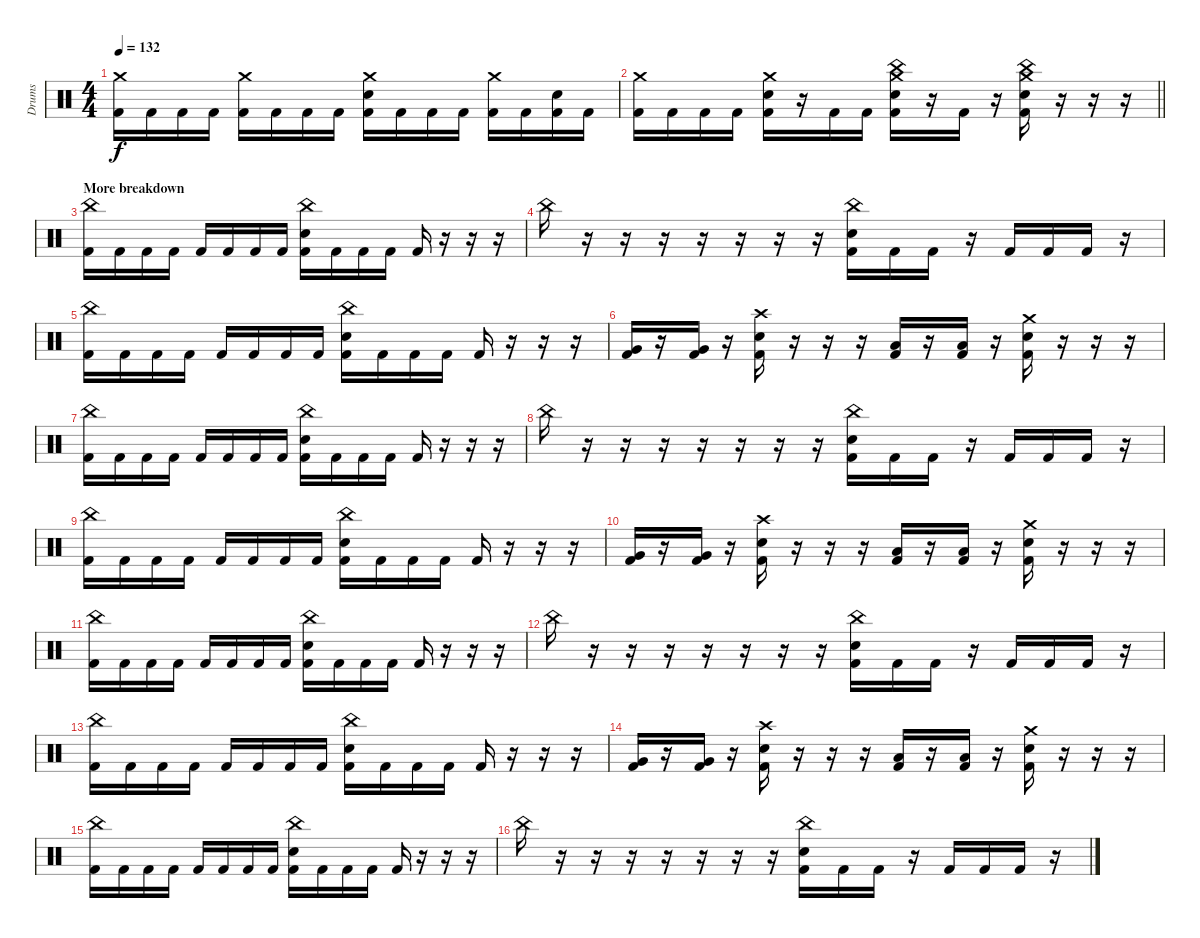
\track ("Drums" "Drums") {instrument percussion}
\staff {score}
\articulation defaults
\ts (4 4)
\tempo 132
\clef neutral
\ks c
("Crash medium (hit)" "Kick (hit) 2").16{dy f} "Kick (hit) 2".16 "Kick (hit) 2".16 "Kick (hit) 2".16 ("Crash medium (hit)" "Kick (hit) 2").16 "Kick (hit) 2".16 "Kick (hit) 2".16 "Kick (hit) 2".16 ("Crash medium (hit)" "Electric Snare (hit)" "Kick (hit) 2").16 "Kick (hit) 2".16 "Kick (hit) 2".16 "Kick (hit) 2".16 ("Crash medium (hit)" "Kick (hit) 2").16 "Kick (hit) 2".16 ("Electric Snare (hit)" "Kick (hit) 2").16 "Kick (hit) 2".16 |
\barLineRight lightlight
("Crash medium (hit)" "Kick (hit) 2").16 "Kick (hit) 2".16 "Kick (hit) 2".16 "Kick (hit) 2".16 ("Crash medium (hit)" "Electric Snare (hit)" "Kick (hit) 2").16 r.16 "Kick (hit) 2".16 "Kick (hit) 2".16 ("Crash medium (hit)" "China (hit)" "Electric Snare (hit)" "Kick (hit) 2").16 r.16 "Kick (hit) 2".16 r.16 ("Crash medium (hit)" "China (hit)" "Electric Snare (hit)" "Kick (hit) 2").16 r.16 r.16 r.16 |
\section ("" "More breakdown")
("China (hit)" "Kick (hit) 2").16 "Kick (hit) 2".16 "Kick (hit) 2".16 "Kick (hit) 2".16 "Kick (hit) 2".16 "Kick (hit) 2".16 "Kick (hit) 2".16 "Kick (hit) 2".16 ("China (hit)" "Electric Snare (hit)" "Kick (hit) 2").16 "Kick (hit) 2".16 "Kick (hit) 2".16 "Kick (hit) 2".16 "Kick (hit) 2".16 r.16 r.16 r.16 |
"China (hit)".16 r.16 r.16 r.16 r.16 r.16 r.16 r.16 ("China (hit)" "Electric Snare (hit)" "Kick (hit) 2").16 "Kick (hit) 2".16 "Kick (hit) 2".16 r.16 "Kick (hit) 2".16 "Kick (hit) 2".16 "Kick (hit) 2".16 r.16 |
("China (hit)" "Kick (hit) 2").16 "Kick (hit) 2".16 "Kick (hit) 2".16 "Kick (hit) 2".16 "Kick (hit) 2".16 "Kick (hit) 2".16 "Kick (hit) 2".16 "Kick (hit) 2".16 ("China (hit)" "Electric Snare (hit)" "Kick (hit) 2").16 "Kick (hit) 2".16 "Kick (hit) 2".16 "Kick (hit) 2".16 "Kick (hit) 2".16 r.16 r.16 r.16 |
("Very Low Tom (hit)" "Kick (hit) 2").16 r.16 ("Very Low Tom (hit)" "Kick (hit) 2").16 r.16 ("Crash high (hit)" "Electric Snare (hit)" "Kick (hit) 2").16 r.16 r.16 r.16 ("Low Floor Tom (hit)" "Kick (hit) 2").16 r.16 ("Low Floor Tom (hit)" "Kick (hit) 2").16 r.16 ("Crash medium (hit)" "Electric Snare (hit)" "Kick (hit) 2").16 r.16 r.16 r.16 |
("China (hit)" "Kick (hit) 2").16 "Kick (hit) 2".16 "Kick (hit) 2".16 "Kick (hit) 2".16 "Kick (hit) 2".16 "Kick (hit) 2".16 "Kick (hit) 2".16 "Kick (hit) 2".16 ("China (hit)" "Electric Snare (hit)" "Kick (hit) 2").16 "Kick (hit) 2".16 "Kick (hit) 2".16 "Kick (hit) 2".16 "Kick (hit) 2".16 r.16 r.16 r.16 |
"China (hit)".16 r.16 r.16 r.16 r.16 r.16 r.16 r.16 ("China (hit)" "Electric Snare (hit)" "Kick (hit) 2").16 "Kick (hit) 2".16 "Kick (hit) 2".16 r.16 "Kick (hit) 2".16 "Kick (hit) 2".16 "Kick (hit) 2".16 r.16 |
("China (hit)" "Kick (hit) 2").16 "Kick (hit) 2".16 "Kick (hit) 2".16 "Kick (hit) 2".16 "Kick (hit) 2".16 "Kick (hit) 2".16 "Kick (hit) 2".16 "Kick (hit) 2".16 ("China (hit)" "Electric Snare (hit)" "Kick (hit) 2").16 "Kick (hit) 2".16 "Kick (hit) 2".16 "Kick (hit) 2".16 "Kick (hit) 2".16 r.16 r.16 r.16 |
("Very Low Tom (hit)" "Kick (hit) 2").16 r.16 ("Very Low Tom (hit)" "Kick (hit) 2").16 r.16 ("Crash high (hit)" "Electric Snare (hit)" "Kick (hit) 2").16 r.16 r.16 r.16 ("Low Floor Tom (hit)" "Kick (hit) 2").16 r.16 ("Low Floor Tom (hit)" "Kick (hit) 2").16 r.16 ("Crash medium (hit)" "Electric Snare (hit)" "Kick (hit) 2").16 r.16 r.16 r.16 |
("China (hit)" "Kick (hit) 2").16 "Kick (hit) 2".16 "Kick (hit) 2".16 "Kick (hit) 2".16 "Kick (hit) 2".16 "Kick (hit) 2".16 "Kick (hit) 2".16 "Kick (hit) 2".16 ("China (hit)" "Electric Snare (hit)" "Kick (hit) 2").16 "Kick (hit) 2".16 "Kick (hit) 2".16 "Kick (hit) 2".16 "Kick (hit) 2".16 r.16 r.16 r.16 |
"China (hit)".16 r.16 r.16 r.16 r.16 r.16 r.16 r.16 ("China (hit)" "Electric Snare (hit)" "Kick (hit) 2").16 "Kick (hit) 2".16 "Kick (hit) 2".16 r.16 "Kick (hit) 2".16 "Kick (hit) 2".16 "Kick (hit) 2".16 r.16 |
("China (hit)" "Kick (hit) 2").16 "Kick (hit) 2".16 "Kick (hit) 2".16 "Kick (hit) 2".16 "Kick (hit) 2".16 "Kick (hit) 2".16 "Kick (hit) 2".16 "Kick (hit) 2".16 ("China (hit)" "Electric Snare (hit)" "Kick (hit) 2").16 "Kick (hit) 2".16 "Kick (hit) 2".16 "Kick (hit) 2".16 "Kick (hit) 2".16 r.16 r.16 r.16 |
("Very Low Tom (hit)" "Kick (hit) 2").16 r.16 ("Very Low Tom (hit)" "Kick (hit) 2").16 r.16 ("Crash high (hit)" "Electric Snare (hit)" "Kick (hit) 2").16 r.16 r.16 r.16 ("Low Floor Tom (hit)" "Kick (hit) 2").16 r.16 ("Low Floor Tom (hit)" "Kick (hit) 2").16 r.16 ("Crash medium (hit)" "Electric Snare (hit)" "Kick (hit) 2").16 r.16 r.16 r.16 |
("China (hit)" "Kick (hit) 2").16 "Kick (hit) 2".16 "Kick (hit) 2".16 "Kick (hit) 2".16 "Kick (hit) 2".16 "Kick (hit) 2".16 "Kick (hit) 2".16 "Kick (hit) 2".16 ("China (hit)" "Electric Snare (hit)" "Kick (hit) 2").16 "Kick (hit) 2".16 "Kick (hit) 2".16 "Kick (hit) 2".16 "Kick (hit) 2".16 r.16 r.16 r.16 |
"China (hit)".16 r.16 r.16 r.16 r.16 r.16 r.16 r.16 ("China (hit)" "Electric Snare (hit)" "Kick (hit) 2").16 "Kick (hit) 2".16 "Kick (hit) 2".16 r.16 "Kick (hit) 2".16 "Kick (hit) 2".16 "Kick (hit) 2".16 r.16
